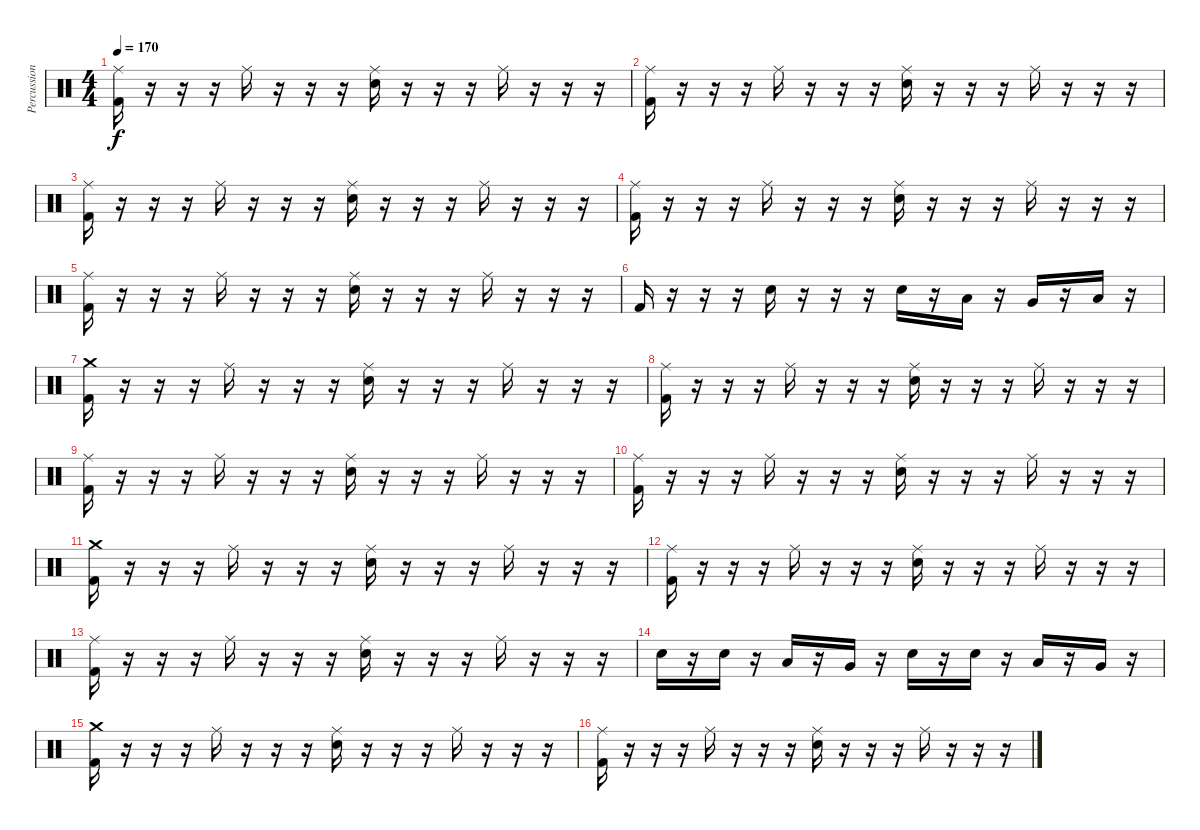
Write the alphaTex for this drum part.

\track ("Percussion" "Percussion") {instrument percussion}
\staff {score}
\articulation defaults
\ts (4 4)
\tempo 170
\clef neutral
\ks c
("Ride (middle)" "Kick (hit) 2").16{dy f} r.16 r.16 r.16 "Ride (middle)".16 r.16 r.16 r.16 ("Ride (middle)" "Snare (hit) 2").16 r.16 r.16 r.16 "Ride (middle)".16 r.16 r.16 r.16 |
("Ride (middle)" "Kick (hit) 2").16 r.16 r.16 r.16 "Ride (middle)".16 r.16 r.16 r.16 ("Ride (middle)" "Snare (hit) 2").16 r.16 r.16 r.16 "Ride (middle)".16 r.16 r.16 r.16 |
("Ride (middle)" "Kick (hit) 2").16 r.16 r.16 r.16 "Ride (middle)".16 r.16 r.16 r.16 ("Ride (middle)" "Snare (hit) 2").16 r.16 r.16 r.16 "Ride (middle)".16 r.16 r.16 r.16 |
("Ride (middle)" "Kick (hit) 2").16 r.16 r.16 r.16 "Ride (middle)".16 r.16 r.16 r.16 ("Ride (middle)" "Snare (hit) 2").16 r.16 r.16 r.16 "Ride (middle)".16 r.16 r.16 r.16 |
("Ride (middle)" "Kick (hit) 2").16 r.16 r.16 r.16 "Ride (middle)".16 r.16 r.16 r.16 ("Ride (middle)" "Snare (hit) 2").16 r.16 r.16 r.16 "Ride (middle)".16 r.16 r.16 r.16 |
"Kick (hit) 2".16 r.16 r.16 r.16 "Snare (hit) 2".16 r.16 r.16 r.16 "Snare (hit) 2".16 r.16 "Low Floor Tom (hit)".16 r.16 "Very Low Tom (hit)".16 r.16 "Low Tom (hit)".16 r.16 |
("Crash medium (hit)" "Kick (hit) 2").16 r.16 r.16 r.16 "Ride (middle)".16 r.16 r.16 r.16 ("Ride (middle)" "Snare (hit) 2").16 r.16 r.16 r.16 "Ride (middle)".16 r.16 r.16 r.16 |
("Ride (middle)" "Kick (hit) 2").16 r.16 r.16 r.16 "Ride (middle)".16 r.16 r.16 r.16 ("Ride (middle)" "Snare (hit) 2").16 r.16 r.16 r.16 "Ride (middle)".16 r.16 r.16 r.16 |
("Ride (middle)" "Kick (hit) 2").16 r.16 r.16 r.16 "Ride (middle)".16 r.16 r.16 r.16 ("Ride (middle)" "Snare (hit) 2").16 r.16 r.16 r.16 "Ride (middle)".16 r.16 r.16 r.16 |
("Ride (middle)" "Kick (hit) 2").16 r.16 r.16 r.16 "Ride (middle)".16 r.16 r.16 r.16 ("Ride (middle)" "Snare (hit) 2").16 r.16 r.16 r.16 "Ride (middle)".16 r.16 r.16 r.16 |
("Crash medium (hit)" "Kick (hit) 2").16 r.16 r.16 r.16 "Ride (middle)".16 r.16 r.16 r.16 ("Ride (middle)" "Snare (hit) 2").16 r.16 r.16 r.16 "Ride (middle)".16 r.16 r.16 r.16 |
("Ride (middle)" "Kick (hit) 2").16 r.16 r.16 r.16 "Ride (middle)".16 r.16 r.16 r.16 ("Ride (middle)" "Snare (hit) 2").16 r.16 r.16 r.16 "Ride (middle)".16 r.16 r.16 r.16 |
("Ride (middle)" "Kick (hit) 2").16 r.16 r.16 r.16 "Ride (middle)".16 r.16 r.16 r.16 ("Ride (middle)" "Snare (hit) 2").16 r.16 r.16 r.16 "Ride (middle)".16 r.16 r.16 r.16 |
"Snare (hit) 2".16 r.16 "Snare (hit) 2".16 r.16 "Low Floor Tom (hit)".16 r.16 "Very Low Tom (hit)".16 r.16 "Snare (hit) 2".16 r.16 "Snare (hit) 2".16 r.16 "Low Floor Tom (hit)".16 r.16 "Very Low Tom (hit)".16 r.16 |
("Crash medium (hit)" "Kick (hit) 2").16 r.16 r.16 r.16 "Ride (middle)".16 r.16 r.16 r.16 ("Ride (middle)" "Snare (hit) 2").16 r.16 r.16 r.16 "Ride (middle)".16 r.16 r.16 r.16 |
("Ride (middle)" "Kick (hit) 2").16 r.16 r.16 r.16 "Ride (middle)".16 r.16 r.16 r.16 ("Ride (middle)" "Snare (hit) 2").16 r.16 r.16 r.16 "Ride (middle)".16 r.16 r.16 r.16
